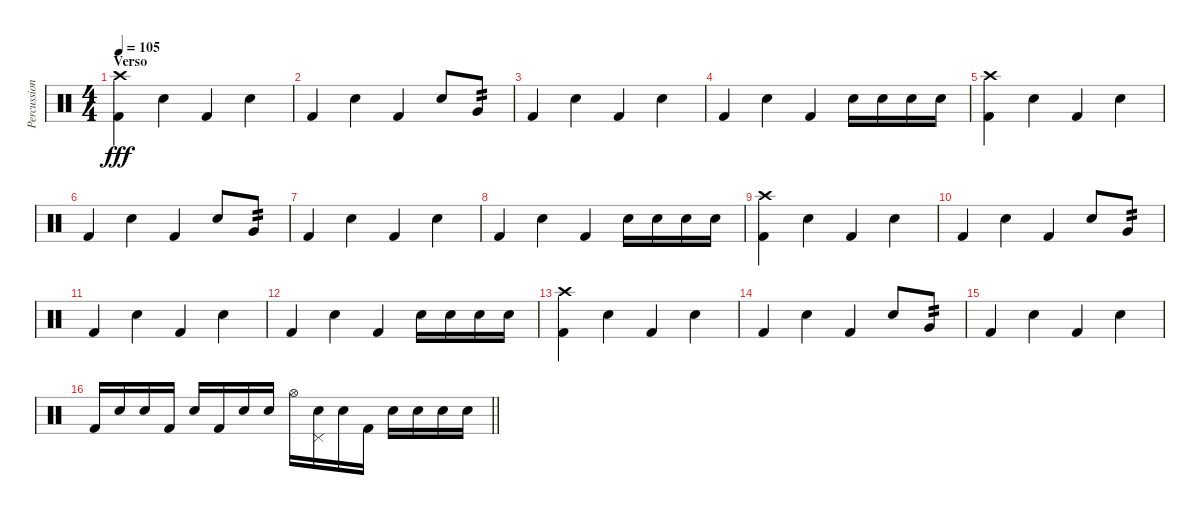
\track ("Percussion" "Percussion") {instrument percussion}
\staff {score}
\articulation defaults
\ts (4 4)
\section ("" "Verso")
\tempo 105
\clef neutral
\ks c
("Crash high (hit)" "Kick (hit) 2").4{dy fff} "Electric Snare (hit)".4 "Kick (hit) 2".4 "Electric Snare (hit)".4 |
"Kick (hit) 2".4 "Electric Snare (hit)".4 "Kick (hit) 2".4 "Electric Snare (hit)".8 "Very Low Tom (hit)".8{tp 2} |
"Kick (hit) 2".4 "Electric Snare (hit)".4 "Kick (hit) 2".4 "Electric Snare (hit)".4 |
"Kick (hit) 2".4 "Electric Snare (hit)".4 "Kick (hit) 2".4 "Electric Snare (hit)".16 "Electric Snare (hit)".16 "Electric Snare (hit)".16 "Electric Snare (hit)".16 |
("Crash high (hit)" "Kick (hit) 2").4 "Electric Snare (hit)".4 "Kick (hit) 2".4 "Electric Snare (hit)".4 |
"Kick (hit) 2".4 "Electric Snare (hit)".4 "Kick (hit) 2".4 "Electric Snare (hit)".8 "Very Low Tom (hit)".8{tp 2} |
"Kick (hit) 2".4 "Electric Snare (hit)".4 "Kick (hit) 2".4 "Electric Snare (hit)".4 |
"Kick (hit) 2".4 "Electric Snare (hit)".4 "Kick (hit) 2".4 "Electric Snare (hit)".16 "Electric Snare (hit)".16 "Electric Snare (hit)".16 "Electric Snare (hit)".16 |
("Crash high (hit)" "Kick (hit) 2").4 "Electric Snare (hit)".4 "Kick (hit) 2".4 "Electric Snare (hit)".4 |
"Kick (hit) 2".4 "Electric Snare (hit)".4 "Kick (hit) 2".4 "Electric Snare (hit)".8 "Very Low Tom (hit)".8{tp 2} |
"Kick (hit) 2".4 "Electric Snare (hit)".4 "Kick (hit) 2".4 "Electric Snare (hit)".4 |
"Kick (hit) 2".4 "Electric Snare (hit)".4 "Kick (hit) 2".4 "Electric Snare (hit)".16 "Electric Snare (hit)".16 "Electric Snare (hit)".16 "Electric Snare (hit)".16 |
("Crash high (hit)" "Kick (hit) 2").4 "Electric Snare (hit)".4 "Kick (hit) 2".4 "Electric Snare (hit)".4 |
"Kick (hit) 2".4 "Electric Snare (hit)".4 "Kick (hit) 2".4 "Electric Snare (hit)".8 "Very Low Tom (hit)".8{tp 2} |
"Kick (hit) 2".4 "Electric Snare (hit)".4 "Kick (hit) 2".4 "Electric Snare (hit)".4 |
\barLineRight lightlight "Kick (hit) 2".16 "Electric Snare (hit)".16 "Electric Snare (hit)".16 "Kick (hit) 2".16 "Electric Snare (hit)".16 "Kick (hit) 2".16 "Electric Snare (hit)".16 "Electric Snare (hit)".16 "Hi-Hat (open)".16
("Pedal Hi-Hat (hit)" "Electric Snare (hit)").16 "Electric Snare (hit)".16 "Kick (hit) 2".16 "Electric Snare (hit)".16 "Electric Snare (hit)".16 "Electric Snare (hit)".16 "Electric Snare (hit)".16
